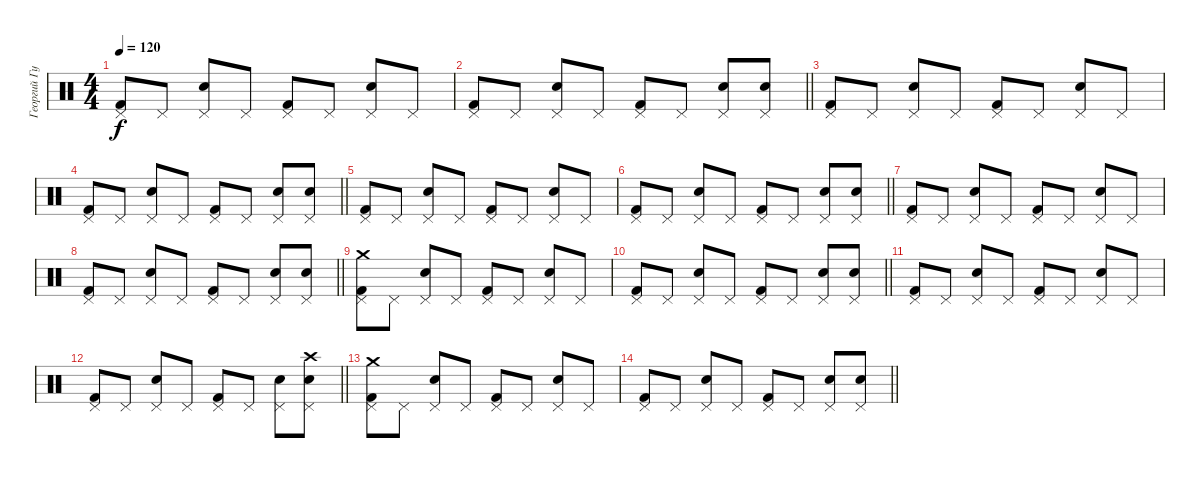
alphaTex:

\track ("Георгий Гурьянов" "Георгий Гу") {instrument percussion}
\staff {score}
\articulation defaults
\ts (4 4)
\tempo 120
\clef neutral
\ks c
("Pedal Hi-Hat (hit)" "Kick (hit) 2").8{dy f} "Pedal Hi-Hat (hit)".8 ("Pedal Hi-Hat (hit)" "Snare (hit) 2").8 "Pedal Hi-Hat (hit)".8 ("Pedal Hi-Hat (hit)" "Kick (hit) 2").8 "Pedal Hi-Hat (hit)".8 ("Pedal Hi-Hat (hit)" "Snare (hit) 2").8 "Pedal Hi-Hat (hit)".8 |
\barLineRight lightlight
("Pedal Hi-Hat (hit)" "Kick (hit) 2").8 "Pedal Hi-Hat (hit)".8 ("Pedal Hi-Hat (hit)" "Snare (hit) 2").8 "Pedal Hi-Hat (hit)".8 ("Pedal Hi-Hat (hit)" "Kick (hit) 2").8 "Pedal Hi-Hat (hit)".8 ("Pedal Hi-Hat (hit)" "Snare (hit) 2").8 ("Pedal Hi-Hat (hit)" "Snare (hit) 2").8 |
("Pedal Hi-Hat (hit)" "Kick (hit) 2").8 "Pedal Hi-Hat (hit)".8 ("Pedal Hi-Hat (hit)" "Snare (hit) 2").8 "Pedal Hi-Hat (hit)".8 ("Pedal Hi-Hat (hit)" "Kick (hit) 2").8 "Pedal Hi-Hat (hit)".8 ("Pedal Hi-Hat (hit)" "Snare (hit) 2").8 "Pedal Hi-Hat (hit)".8 |
\barLineRight lightlight
("Pedal Hi-Hat (hit)" "Kick (hit) 2").8 "Pedal Hi-Hat (hit)".8 ("Pedal Hi-Hat (hit)" "Snare (hit) 2").8 "Pedal Hi-Hat (hit)".8 ("Pedal Hi-Hat (hit)" "Kick (hit) 2").8 "Pedal Hi-Hat (hit)".8 ("Pedal Hi-Hat (hit)" "Snare (hit) 2").8 ("Pedal Hi-Hat (hit)" "Snare (hit) 2").8 |
("Pedal Hi-Hat (hit)" "Kick (hit) 2").8 "Pedal Hi-Hat (hit)".8 ("Pedal Hi-Hat (hit)" "Snare (hit) 2").8 "Pedal Hi-Hat (hit)".8 ("Pedal Hi-Hat (hit)" "Kick (hit) 2").8 "Pedal Hi-Hat (hit)".8 ("Pedal Hi-Hat (hit)" "Snare (hit) 2").8 "Pedal Hi-Hat (hit)".8 |
\barLineRight lightlight
("Pedal Hi-Hat (hit)" "Kick (hit) 2").8 "Pedal Hi-Hat (hit)".8 ("Pedal Hi-Hat (hit)" "Snare (hit) 2").8 "Pedal Hi-Hat (hit)".8 ("Pedal Hi-Hat (hit)" "Kick (hit) 2").8 "Pedal Hi-Hat (hit)".8 ("Pedal Hi-Hat (hit)" "Snare (hit) 2").8 ("Pedal Hi-Hat (hit)" "Snare (hit) 2").8 |
("Pedal Hi-Hat (hit)" "Kick (hit) 2").8 "Pedal Hi-Hat (hit)".8 ("Pedal Hi-Hat (hit)" "Snare (hit) 2").8 "Pedal Hi-Hat (hit)".8 ("Pedal Hi-Hat (hit)" "Kick (hit) 2").8 "Pedal Hi-Hat (hit)".8 ("Pedal Hi-Hat (hit)" "Snare (hit) 2").8 "Pedal Hi-Hat (hit)".8 |
\barLineRight lightlight
("Pedal Hi-Hat (hit)" "Kick (hit) 2").8 "Pedal Hi-Hat (hit)".8 ("Pedal Hi-Hat (hit)" "Snare (hit) 2").8 "Pedal Hi-Hat (hit)".8 ("Pedal Hi-Hat (hit)" "Kick (hit) 2").8 "Pedal Hi-Hat (hit)".8 ("Pedal Hi-Hat (hit)" "Snare (hit) 2").8 ("Pedal Hi-Hat (hit)" "Snare (hit) 2").8 |
("Pedal Hi-Hat (hit)" "Kick (hit) 2" "Crash medium (hit)").8 "Pedal Hi-Hat (hit)".8 ("Pedal Hi-Hat (hit)" "Snare (hit) 2").8 "Pedal Hi-Hat (hit)".8 ("Pedal Hi-Hat (hit)" "Kick (hit) 2").8 "Pedal Hi-Hat (hit)".8 ("Pedal Hi-Hat (hit)" "Snare (hit) 2").8 "Pedal Hi-Hat (hit)".8 |
\barLineRight lightlight
("Pedal Hi-Hat (hit)" "Kick (hit) 2").8 "Pedal Hi-Hat (hit)".8 ("Pedal Hi-Hat (hit)" "Snare (hit) 2").8 "Pedal Hi-Hat (hit)".8 ("Pedal Hi-Hat (hit)" "Kick (hit) 2").8 "Pedal Hi-Hat (hit)".8 ("Pedal Hi-Hat (hit)" "Snare (hit) 2").8 ("Pedal Hi-Hat (hit)" "Snare (hit) 2").8 |
("Pedal Hi-Hat (hit)" "Kick (hit) 2").8{volume 9} "Pedal Hi-Hat (hit)".8 ("Pedal Hi-Hat (hit)" "Snare (hit) 2").8 "Pedal Hi-Hat (hit)".8 ("Pedal Hi-Hat (hit)" "Kick (hit) 2").8 "Pedal Hi-Hat (hit)".8 ("Pedal Hi-Hat (hit)" "Snare (hit) 2").8 "Pedal Hi-Hat (hit)".8 |
\barLineRight lightlight
("Pedal Hi-Hat (hit)" "Kick (hit) 2").8{volume 8} "Pedal Hi-Hat (hit)".8 ("Pedal Hi-Hat (hit)" "Snare (hit) 2").8 "Pedal Hi-Hat (hit)".8 ("Pedal Hi-Hat (hit)" "Kick (hit) 2").8 "Pedal Hi-Hat (hit)".8 ("Pedal Hi-Hat (hit)" "Snare (hit) 2").8 ("Pedal Hi-Hat (hit)" "Snare (hit) 2" "Crash high (hit)").8 |
("Pedal Hi-Hat (hit)" "Kick (hit) 2" "Crash medium (hit)").8{volume 6} "Pedal Hi-Hat (hit)".8 ("Pedal Hi-Hat (hit)" "Snare (hit) 2").8 "Pedal Hi-Hat (hit)".8 ("Pedal Hi-Hat (hit)" "Kick (hit) 2").8 "Pedal Hi-Hat (hit)".8 ("Pedal Hi-Hat (hit)" "Snare (hit) 2").8 "Pedal Hi-Hat (hit)".8 |
\barLineRight lightlight
("Pedal Hi-Hat (hit)" "Kick (hit) 2").8{volume 4} "Pedal Hi-Hat (hit)".8 ("Pedal Hi-Hat (hit)" "Snare (hit) 2").8 "Pedal Hi-Hat (hit)".8 ("Pedal Hi-Hat (hit)" "Kick (hit) 2").8 "Pedal Hi-Hat (hit)".8 ("Pedal Hi-Hat (hit)" "Snare (hit) 2").8 ("Pedal Hi-Hat (hit)" "Snare (hit) 2").8
